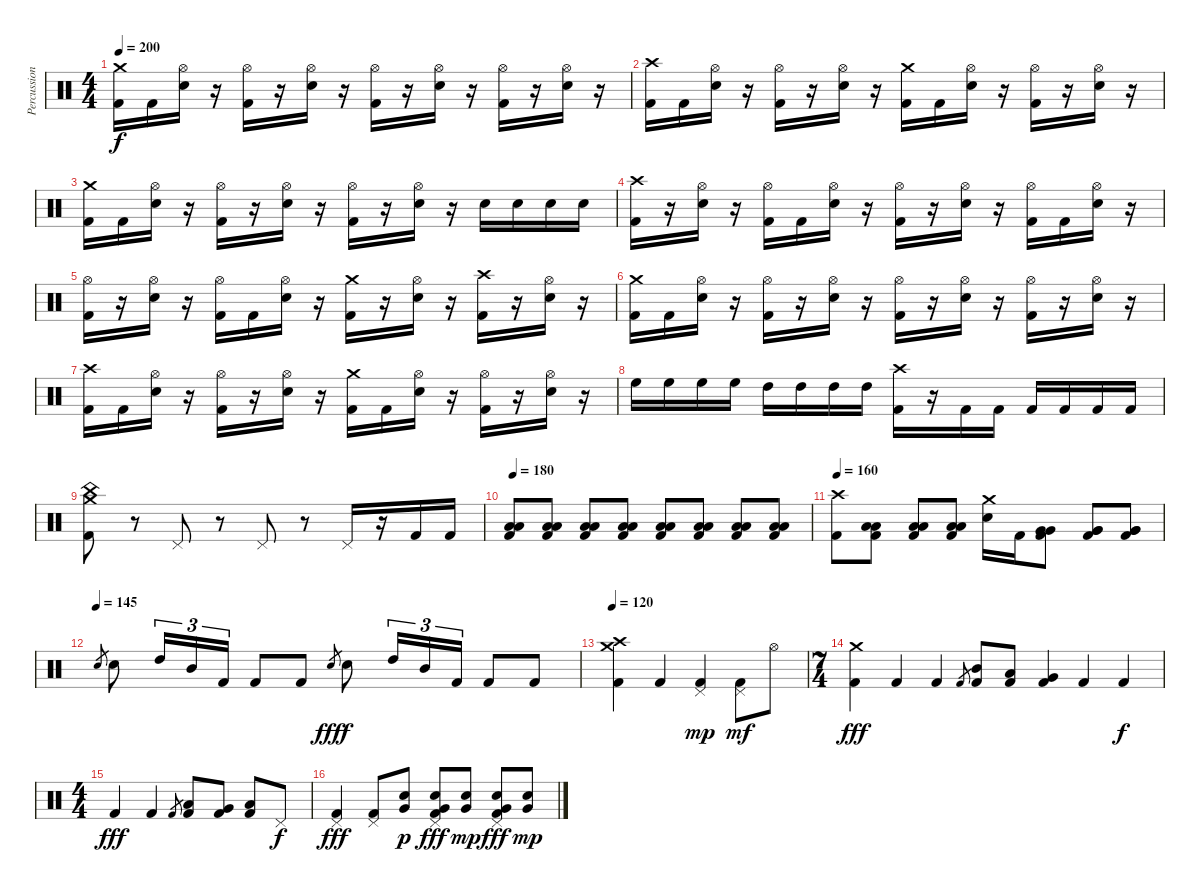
\track ("Percussion" "Percussion") {instrument percussion}
\staff {score}
\articulation defaults
\ts (4 4)
\tempo 200
\clef neutral
\ks c
("Crash medium (hit)" "Kick (hit) 2").16{dy f} "Kick (hit) 2".16 ("Hi-Hat (open)" "Snare (hit) 2").16 r.16 ("Hi-Hat (open)" "Kick (hit) 2").16 r.16 ("Hi-Hat (open)" "Snare (hit) 2").16 r.16 ("Hi-Hat (open)" "Kick (hit) 2").16 r.16 ("Hi-Hat (open)" "Snare (hit) 2").16 r.16 ("Hi-Hat (open)" "Kick (hit) 2").16 r.16 ("Hi-Hat (open)" "Snare (hit) 2").16 r.16 |
("Crash high (hit)" "Kick (hit) 2").16 "Kick (hit) 2".16 ("Hi-Hat (open)" "Snare (hit) 2").16 r.16 ("Hi-Hat (open)" "Kick (hit) 2").16 r.16 ("Hi-Hat (open)" "Snare (hit) 2").16 r.16 ("Crash medium (hit)" "Kick (hit) 2").16 "Kick (hit) 2".16 ("Hi-Hat (open)" "Snare (hit) 2").16 r.16 ("Hi-Hat (open)" "Kick (hit) 2").16 r.16 ("Hi-Hat (open)" "Snare (hit) 2").16 r.16 |
("Crash medium (hit)" "Kick (hit) 2").16 "Kick (hit) 2".16 ("Hi-Hat (open)" "Snare (hit) 2").16 r.16 ("Hi-Hat (open)" "Kick (hit) 2").16 r.16 ("Hi-Hat (open)" "Snare (hit) 2").16 r.16 ("Hi-Hat (open)" "Kick (hit) 2").16 r.16 ("Hi-Hat (open)" "Snare (hit) 2").16 r.16 "Snare (hit) 2".16 "Snare (hit) 2".16 "Snare (hit) 2".16 "Snare (hit) 2".16 |
("Crash high (hit)" "Kick (hit) 2").16 r.16 ("Hi-Hat (open)" "Snare (hit) 2").16 r.16 ("Hi-Hat (open)" "Kick (hit) 2").16 "Kick (hit) 2".16 ("Hi-Hat (open)" "Snare (hit) 2").16 r.16 ("Hi-Hat (open)" "Kick (hit) 2").16 r.16 ("Hi-Hat (open)" "Snare (hit) 2").16 r.16 ("Hi-Hat (open)" "Kick (hit) 2").16 "Kick (hit) 2".16 ("Hi-Hat (open)" "Snare (hit) 2").16 r.16 |
("Hi-Hat (open)" "Kick (hit) 2").16 r.16 ("Hi-Hat (open)" "Snare (hit) 2").16 r.16 ("Hi-Hat (open)" "Kick (hit) 2").16 "Kick (hit) 2".16 ("Hi-Hat (open)" "Snare (hit) 2").16 r.16 ("Crash medium (hit)" "Kick (hit) 2").16 r.16 ("Hi-Hat (open)" "Snare (hit) 2").16 r.16 ("Crash high (hit)" "Kick (hit) 2").16 r.16 ("Hi-Hat (open)" "Snare (hit) 2").16 r.16 |
("Crash medium (hit)" "Kick (hit) 2").16 "Kick (hit) 2".16 ("Hi-Hat (open)" "Snare (hit) 2").16 r.16 ("Hi-Hat (open)" "Kick (hit) 2").16 r.16 ("Hi-Hat (open)" "Snare (hit) 2").16 r.16 ("Hi-Hat (open)" "Kick (hit) 2").16 r.16 ("Hi-Hat (open)" "Snare (hit) 2").16 r.16 ("Hi-Hat (open)" "Kick (hit) 2").16 r.16 ("Hi-Hat (open)" "Snare (hit) 2").16 r.16 |
("Crash high (hit)" "Kick (hit) 2").16 "Kick (hit) 2".16 ("Hi-Hat (open)" "Snare (hit) 2").16 r.16 ("Hi-Hat (open)" "Kick (hit) 2").16 r.16 ("Hi-Hat (open)" "Snare (hit) 2").16 r.16 ("Crash medium (hit)" "Kick (hit) 2").16 "Kick (hit) 2".16 ("Hi-Hat (open)" "Snare (hit) 2").16 r.16 ("Hi-Hat (open)" "Kick (hit) 2").16 r.16 ("Hi-Hat (open)" "Snare (hit) 2").16 r.16 |
"High Floor Tom (hit)".16 "High Floor Tom (hit)".16 "High Floor Tom (hit)".16 "High Floor Tom (hit)".16 "High Tom (hit)".16 "High Tom (hit)".16 "High Tom (hit)".16 "High Tom (hit)".16 ("Crash high (hit)" "Kick (hit) 2").16 r.16 "Kick (hit) 2".16 "Kick (hit) 2".16 "Kick (hit) 2".16 "Kick (hit) 2".16 "Kick (hit) 2".16 "Kick (hit) 2".16 |
("Crash medium (hit)" "China (hit)" "Kick (hit) 2").8 r.8 "Pedal Hi-Hat (hit)".8 r.8 "Pedal Hi-Hat (hit)".8 r.8 "Pedal Hi-Hat (hit)".16 r.16 "Kick (hit) 2".16 "Kick (hit) 2".16 |
\tempo 180
("Low Tom (hit)" "Low Tom (hit)" "Kick (hit) 2").8 ("Low Tom (hit)" "Low Tom (hit)" "Kick (hit) 2").8 ("Low Tom (hit)" "Low Tom (hit)" "Kick (hit) 2").8 ("Low Tom (hit)" "Low Tom (hit)" "Kick (hit) 2").8 ("Low Tom (hit)" "Low Tom (hit)" "Kick (hit) 2").8 ("Low Tom (hit)" "Low Tom (hit)" "Kick (hit) 2").8 ("Low Tom (hit)" "Low Tom (hit)" "Kick (hit) 2").8 ("Low Tom (hit)" "Low Tom (hit)" "Kick (hit) 2").8 |
\tempo 160
("Crash high (hit)" "Kick (hit) 2").8 ("Low Tom (hit)" "Low Tom (hit)" "Kick (hit) 2").8 ("Low Tom (hit)" "Low Tom (hit)" "Kick (hit) 2").8 ("Low Tom (hit)" "Low Tom (hit)" "Kick (hit) 2").8 ("Crash medium (hit)" "Snare (hit) 2").16 "Kick (hit) 2".16 ("Very Low Tom (hit)" "Very Low Tom (hit)" "Kick (hit) 2").8 ("Very Low Tom (hit)" "Very Low Tom (hit)" "Kick (hit) 2").8 ("Very Low Tom (hit)" "Very Low Tom (hit)" "Kick (hit) 2").8 |
\tempo (145)
"Snare (hit) 2".8{gr} "Snare (hit) 2".8 "High Tom (hit)".16{tu (3 2)} "Mid Tom (hit)".16{tu (3 2)} "Kick (hit) 2".16{tu (3 2)} "Kick (hit) 2".8 "Kick (hit) 2".8 "Snare (hit) 2".8{gr dy fff} "Snare (hit) 2".8{dy f} "High Tom (hit)".16{tu (3 2)} "Mid Tom (hit)".16{tu (3 2)} "Kick (hit) 2".16{tu (3 2)} "Kick (hit) 2".8 "Kick (hit) 2".8 |
\tempo 120
("Crash medium (hit)" "Crash high (hit)" "Kick (hit) 2").4 "Kick (hit) 2".4 ("Pedal Hi-Hat (hit)" "Kick (hit) 2").4{dy mp} ("Pedal Hi-Hat (hit)" "Kick (hit) 2").8{dy mf} "Hi-Hat (open)".8 |
\ts (7 4)
("Kick (hit) 2" "Crash medium (hit)").4{dy fff} "Kick (hit) 2".4 "Kick (hit) 2".4 "Kick (hit) 2".8{gr} ("Kick (hit) 2" "Mid Tom (hit)").8 ("Kick (hit) 2" "Low Tom (hit)").8 ("Kick (hit) 2" "Very Low Tom (hit)").4 "Kick (hit) 2".4 "Kick (hit) 2".4{dy f} |
\ts (4 4)
"Kick (hit) 2".4{dy fff} "Kick (hit) 2".4 "Kick (hit) 2".8{gr} ("Kick (hit) 2" "Low Tom (hit)").8 ("Kick (hit) 2" "Very Low Tom (hit)").8 ("Kick (hit) 2" "Low Floor Tom (hit)").8 "Pedal Hi-Hat (hit)".8{dy f} |
("Kick (hit) 2" "Pedal Hi-Hat (hit)").4{dy fff} ("Kick (hit) 2" "Pedal Hi-Hat (hit)").8 ("Very Low Tom (hit)" "Snare (hit) 2").8{dy p} ("Snare (hit) 2" "Very Low Tom (hit)" "Kick (hit) 2" "Pedal Hi-Hat (hit)").8{dy fff} ("Snare (hit) 2" "Very Low Tom (hit)").8{dy mp} ("Snare (hit) 2" "Very Low Tom (hit)" "Kick (hit) 2" "Pedal Hi-Hat (hit)").8{dy fff} ("Snare (hit) 2" "Very Low Tom (hit)").8{dy mp}
